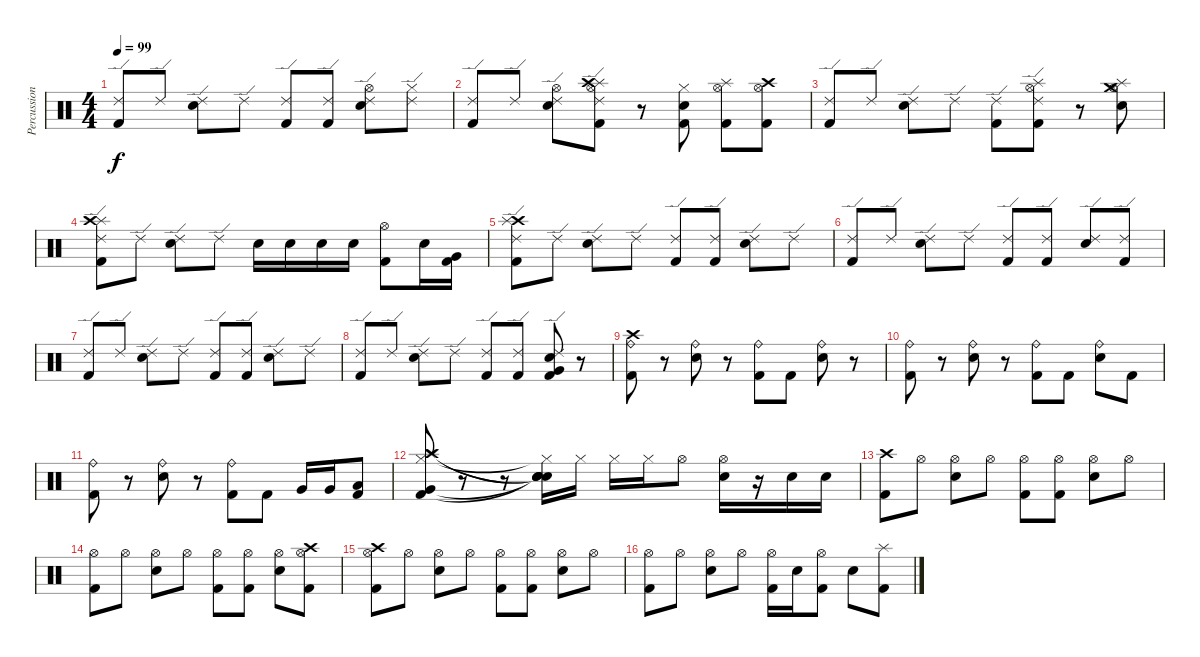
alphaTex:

\track ("Percussion" "Percussion") {instrument percussion}
\staff {score}
\articulation defaults
\ts (4 4)
\tempo 99
\clef neutral
\ks c
("Kick (hit) 2" "Ride (edge) 2").8{dy f} "Ride (edge) 2".8 ("Snare (hit) 2" "Ride (edge) 2").8 "Ride (edge) 2".8 ("Kick (hit) 2" "Ride (edge) 2").8 ("Kick (hit) 2" "Ride (edge) 2").8 ("Hi-Hat (open)" "Snare (hit) 2" "Ride (edge) 2").8 ("Hi-Hat (closed)" "Ride (edge) 2").8 |
("Kick (hit) 2" "Ride (edge) 2").8 "Ride (edge) 2".8 ("Hi-Hat (open)" "Snare (hit) 2" "Ride (edge) 2").8 ("Hi-Hat (open)" "Splash (hit)" "Crash high (hit)" "Kick (hit) 2" "Ride (edge) 2").8 r.8 ("Snare (hit) 2" "Kick (hit) 2" "Hi-Hat (closed)").8 ("Splash (hit)" "Hi-Hat (open)" "Kick (hit) 2").8 ("Crash high (hit)" "Hi-Hat (open)" "Kick (hit) 2").8 |
("Kick (hit) 2" "Ride (edge) 2").8 "Ride (edge) 2".8 ("Snare (hit) 2" "Ride (edge) 2").8 "Ride (edge) 2".8 ("Kick (hit) 2" "Ride (edge) 2").8 ("Splash (hit)" "Hi-Hat (open)" "Kick (hit) 2" "Ride (edge) 2").8 r.8 ("Splash (hit)" "Hi-Hat (open)" "Crash medium (hit)" "Snare (hit) 2").8 |
("Splash (hit)" "Crash high (hit)" "Kick (hit) 2" "Ride (edge) 2").8 "Ride (edge) 2".8 ("Snare (hit) 2" "Ride (edge) 2").8 "Ride (edge) 2".8 "Snare (hit) 2".16 "Snare (hit) 2".16 "Snare (hit) 2".16 "Snare (hit) 2".16 ("Hi-Hat (open)" "Kick (hit) 2").8 "Snare (hit) 2".16 ("Very Low Tom (hit)" "Kick (hit) 2").16 |
("Crash high (hit)" "Splash (hit)" "Kick (hit) 2" "Ride (edge) 2").8 "Ride (edge) 2".8 ("Snare (hit) 2" "Ride (edge) 2").8 "Ride (edge) 2".8 ("Kick (hit) 2" "Ride (edge) 2").8 ("Kick (hit) 2" "Ride (edge) 2").8 ("Snare (hit) 2" "Ride (edge) 2").8 "Ride (edge) 2".8 |
("Kick (hit) 2" "Ride (edge) 2").8 "Ride (edge) 2".8 ("Snare (hit) 2" "Ride (edge) 2").8 "Ride (edge) 2".8 ("Kick (hit) 2" "Ride (edge) 2").8 ("Kick (hit) 2" "Ride (edge) 2").8 ("Snare (hit) 2" "Ride (edge) 2").8 ("Kick (hit) 2" "Ride (edge) 2").8 |
("Kick (hit) 2" "Ride (edge) 2").8 "Ride (edge) 2".8 ("Snare (hit) 2" "Ride (edge) 2").8 "Ride (edge) 2".8 ("Kick (hit) 2" "Ride (edge) 2").8 ("Kick (hit) 2" "Ride (edge) 2").8 ("Snare (hit) 2" "Ride (edge) 2").8 "Ride (edge) 2".8 |
("Kick (hit) 2" "Ride (edge) 2").8 "Ride (edge) 2".8 ("Snare (hit) 2" "Ride (edge) 2").8 "Ride (edge) 2".8 ("Kick (hit) 2" "Ride (edge) 2").8 ("Kick (hit) 2" "Ride (edge) 2").8 ("Very Low Tom (hit)" "Snare (hit) 2" "Kick (hit) 2" "Ride (edge) 2").8 r.8 |
("Crash high (hit)" "Kick (hit) 2" "Ride (bell)").8 r.8 ("Snare (hit) 2" "Ride (bell)").8 r.8 ("Kick (hit) 2" "Ride (bell)").8 "Kick (hit) 2".8 ("Snare (hit) 2" "Ride (bell)").8 r.8 |
("Kick (hit) 2" "Ride (bell)").8 r.8 ("Snare (hit) 2" "Ride (bell)").8 r.8 ("Kick (hit) 2" "Ride (bell)").8 "Kick (hit) 2".8 ("Snare (hit) 2" "Ride (bell)").8 "Kick (hit) 2".8 |
("Kick (hit) 2" "Ride (bell)").8 r.8 ("Snare (hit) 2" "Ride (bell)").8 r.8 ("Kick (hit) 2" "Ride (bell)").8 "Kick (hit) 2".8 "Very Low Tom (hit)".16 "Very Low Tom (hit)".16 ("Low Floor Tom (hit)" "Kick (hit) 2").8 |
("Splash (hit)" "Crash high (hit)" "Very Low Tom (hit)" "Kick (hit) 2" "Hi-Hat (closed)").8 r.8 r.8 ("Snare (hit)"{t} "Snare (hit)"{t} "Snare (hit)"{t} "Snare (hit)"{t} "Hi-Hat (closed)"{t}).16 "Hi-Hat (closed)".16 "Hi-Hat (closed)".16 "Hi-Hat (closed)".16 "Hi-Hat (open)".8 ("Hi-Hat (open)" "Snare (hit) 2").16 r.16 "Snare (hit) 2".16 "Snare (hit) 2".16 |
("Kick (hit) 2" "Crash high (hit)").8 "Hi-Hat (open)".8 ("Snare (hit) 2" "Hi-Hat (open)").8 "Hi-Hat (open)".8 ("Kick (hit) 2" "Hi-Hat (open)").8 ("Kick (hit) 2" "Hi-Hat (open)").8 ("Snare (hit) 2" "Hi-Hat (open)").8 "Hi-Hat (open)".8 |
("Kick (hit) 2" "Hi-Hat (open)").8 "Hi-Hat (open)".8 ("Snare (hit) 2" "Hi-Hat (open)").8 "Hi-Hat (open)".8 ("Kick (hit) 2" "Hi-Hat (open)").8 ("Kick (hit) 2" "Hi-Hat (open)").8 ("Snare (hit) 2" "Hi-Hat (open)").8 ("Crash high (hit)" "Kick (hit) 2" "Hi-Hat (open)").8 |
("Crash high (hit)" "Kick (hit) 2" "Hi-Hat (open)").8 "Hi-Hat (open)".8 ("Snare (hit) 2" "Hi-Hat (open)").8 "Hi-Hat (open)".8 ("Kick (hit) 2" "Hi-Hat (open)").8 ("Kick (hit) 2" "Hi-Hat (open)").8 ("Snare (hit) 2" "Hi-Hat (open)").8 "Hi-Hat (open)".8 |
("Kick (hit) 2" "Hi-Hat (open)").8 "Hi-Hat (open)".8 ("Snare (hit) 2" "Hi-Hat (open)").8 "Hi-Hat (open)".8 ("Kick (hit) 2" "Hi-Hat (open)").16 "Snare (hit) 2".16 ("Kick (hit) 2" "Hi-Hat (open)").8 "Snare (hit) 2".8 ("Splash (hit)" "Kick (hit) 2").8
